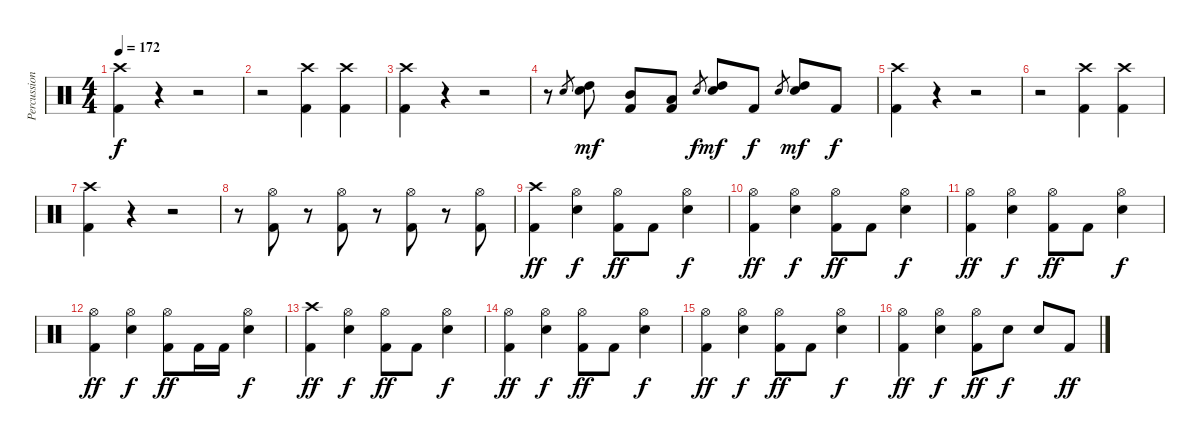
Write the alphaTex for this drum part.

\track ("Percussion" "Percussion") {instrument percussion}
\staff {score}
\articulation defaults
\ts (4 4)
\tempo 172
\clef neutral
\ks c
("Crash high (hit)" "Kick (hit) 2").4{dy f} r.4 r.2 |
r.2 ("Crash high (hit)" "Kick (hit) 2").4 ("Crash high (hit)" "Kick (hit) 2").4 |
("Crash high (hit)" "Kick (hit) 2").4 r.4 r.2 |
r.8 "Snare (hit) 2".8{gr} ("Snare (hit) 2" "High Tom (hit)").8{dy mf} ("Mid Tom (hit)" "Kick (hit) 2").8 ("Low Tom (hit)" "Kick (hit) 2").8 "Snare (hit) 2".8{gr dy f} ("Snare (hit) 2" "High Tom (hit)").8{dy mf} "Kick (hit) 2".8{dy f} "Snare (hit) 2".8{gr} ("Snare (hit) 2" "High Tom (hit)").8{dy mf} "Kick (hit) 2".8{dy f} |
("Crash high (hit)" "Kick (hit) 2").4 r.4 r.2 |
r.2 ("Crash high (hit)" "Kick (hit) 2").4 ("Crash high (hit)" "Kick (hit) 2").4 |
("Crash high (hit)" "Kick (hit) 2").4 r.4 r.2 |
r.8 ("Hi-Hat (open)" "Kick (hit) 2").8 r.8 ("Hi-Hat (open)" "Kick (hit) 2").8 r.8 ("Hi-Hat (open)" "Kick (hit) 2").8 r.8 ("Hi-Hat (open)" "Kick (hit) 2").8 |
("Crash high (hit)" "Kick (hit) 2").4{dy ff} ("Hi-Hat (open)" "Snare (hit) 2").4{dy f} ("Hi-Hat (open)" "Kick (hit) 2").8{dy ff} "Kick (hit) 2".8 ("Hi-Hat (open)" "Snare (hit) 2").4{dy f} |
("Hi-Hat (open)" "Kick (hit) 2").4{dy ff} ("Hi-Hat (open)" "Snare (hit) 2").4{dy f} ("Hi-Hat (open)" "Kick (hit) 2").8{dy ff} "Kick (hit) 2".8 ("Hi-Hat (open)" "Snare (hit) 2").4{dy f} |
("Hi-Hat (open)" "Kick (hit) 2").4{dy ff} ("Hi-Hat (open)" "Snare (hit) 2").4{dy f} ("Hi-Hat (open)" "Kick (hit) 2").8{dy ff} "Kick (hit) 2".8 ("Hi-Hat (open)" "Snare (hit) 2").4{dy f} |
("Hi-Hat (open)" "Kick (hit) 2").4{dy ff} ("Hi-Hat (open)" "Snare (hit) 2").4{dy f} ("Hi-Hat (open)" "Kick (hit) 2").8{dy ff} "Kick (hit) 2".16 "Kick (hit) 2".16 ("Hi-Hat (open)" "Snare (hit) 2").4{dy f} |
("Crash high (hit)" "Kick (hit) 2").4{dy ff} ("Hi-Hat (open)" "Snare (hit) 2").4{dy f} ("Hi-Hat (open)" "Kick (hit) 2").8{dy ff} "Kick (hit) 2".8 ("Hi-Hat (open)" "Snare (hit) 2").4{dy f} |
("Hi-Hat (open)" "Kick (hit) 2").4{dy ff} ("Hi-Hat (open)" "Snare (hit) 2").4{dy f} ("Hi-Hat (open)" "Kick (hit) 2").8{dy ff} "Kick (hit) 2".8 ("Hi-Hat (open)" "Snare (hit) 2").4{dy f} |
("Hi-Hat (open)" "Kick (hit) 2").4{dy ff} ("Hi-Hat (open)" "Snare (hit) 2").4{dy f} ("Hi-Hat (open)" "Kick (hit) 2").8{dy ff} "Kick (hit) 2".8 ("Hi-Hat (open)" "Snare (hit) 2").4{dy f} |
("Hi-Hat (open)" "Kick (hit) 2").4{dy ff} ("Hi-Hat (open)" "Snare (hit) 2").4{dy f} ("Hi-Hat (open)" "Kick (hit) 2").8{dy ff} "Snare (hit) 2".8{dy f} "Snare (hit) 2".8 "Kick (hit) 2".8{dy ff}
